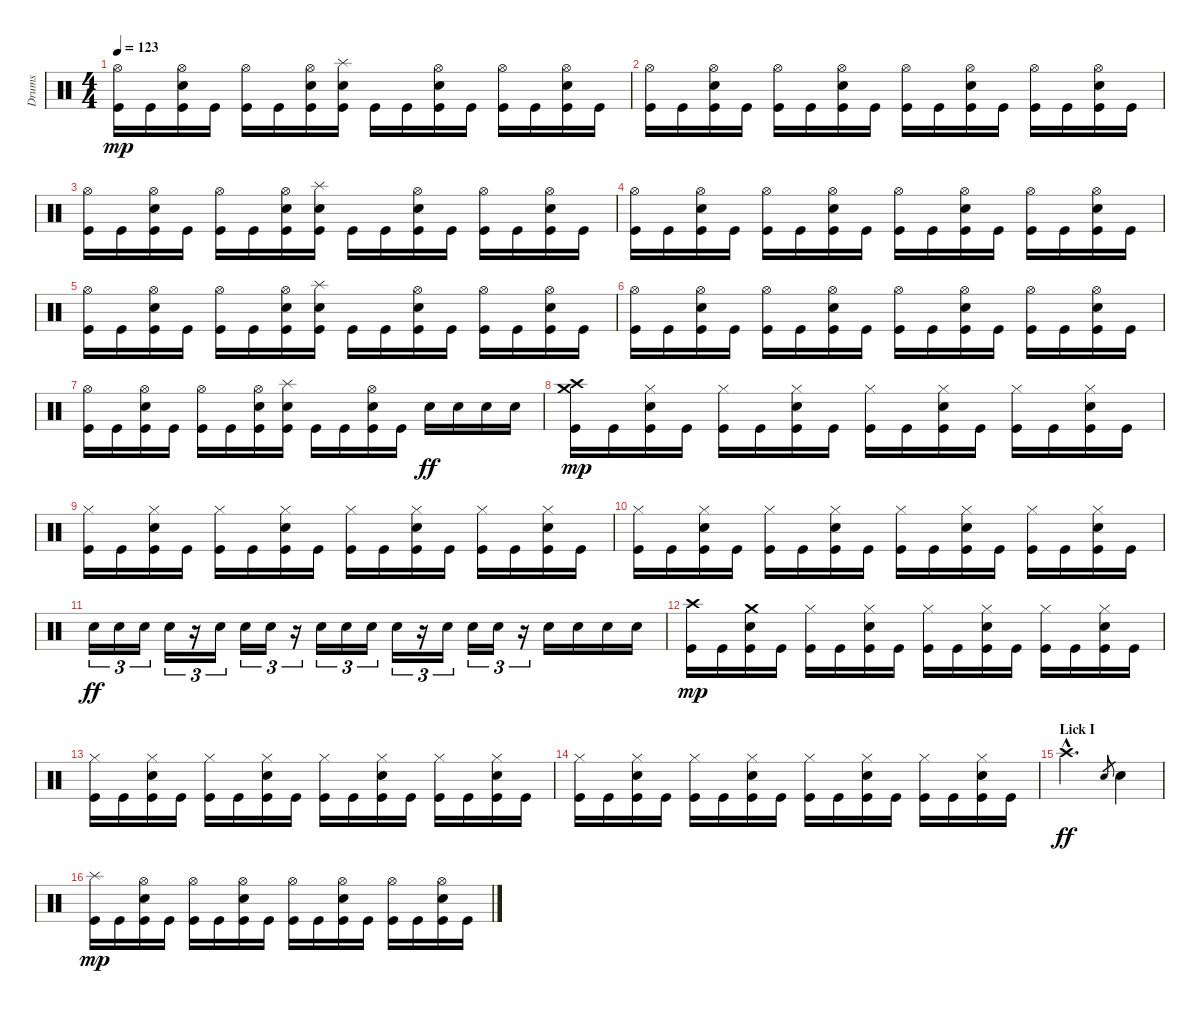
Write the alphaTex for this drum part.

\track ("Drums" "Drums") {instrument percussion}
\staff {score}
\articulation defaults
\ts (4 4)
\tempo 123
\clef neutral
\ks c
("Hi-Hat (open)" "Kick (hit)").16{dy mp} "Kick (hit)".16 ("Hi-Hat (open)" "Electric Snare (hit)" "Kick (hit)").16 "Kick (hit)".16 ("Hi-Hat (open)" "Kick (hit)").16 "Kick (hit)".16 ("Hi-Hat (open)" "Electric Snare (hit)" "Kick (hit)").16 ("Splash (hit)" "Electric Snare (hit)" "Kick (hit)").16 "Kick (hit)".16 "Kick (hit)".16 ("Hi-Hat (open)" "Electric Snare (hit)" "Kick (hit)").16 "Kick (hit)".16 ("Hi-Hat (open)" "Kick (hit)").16 "Kick (hit)".16 ("Hi-Hat (open)" "Electric Snare (hit)" "Kick (hit)").16 "Kick (hit)".16 |
("Hi-Hat (open)" "Kick (hit)").16 "Kick (hit)".16 ("Hi-Hat (open)" "Electric Snare (hit)" "Kick (hit)").16 "Kick (hit)".16 ("Hi-Hat (open)" "Kick (hit)").16 "Kick (hit)".16 ("Hi-Hat (open)" "Electric Snare (hit)" "Kick (hit)").16 "Kick (hit)".16 ("Hi-Hat (open)" "Kick (hit)").16 "Kick (hit)".16 ("Hi-Hat (open)" "Electric Snare (hit)" "Kick (hit)").16 "Kick (hit)".16 ("Hi-Hat (open)" "Kick (hit)").16 "Kick (hit)".16 ("Hi-Hat (open)" "Electric Snare (hit)" "Kick (hit)").16 "Kick (hit)".16 |
("Hi-Hat (open)" "Kick (hit)").16 "Kick (hit)".16 ("Hi-Hat (open)" "Electric Snare (hit)" "Kick (hit)").16 "Kick (hit)".16 ("Hi-Hat (open)" "Kick (hit)").16 "Kick (hit)".16 ("Hi-Hat (open)" "Electric Snare (hit)" "Kick (hit)").16 ("Splash (hit)" "Electric Snare (hit)" "Kick (hit)").16 "Kick (hit)".16 "Kick (hit)".16 ("Hi-Hat (open)" "Electric Snare (hit)" "Kick (hit)").16 "Kick (hit)".16 ("Hi-Hat (open)" "Kick (hit)").16 "Kick (hit)".16 ("Hi-Hat (open)" "Electric Snare (hit)" "Kick (hit)").16 "Kick (hit)".16 |
("Hi-Hat (open)" "Kick (hit)").16 "Kick (hit)".16 ("Hi-Hat (open)" "Electric Snare (hit)" "Kick (hit)").16 "Kick (hit)".16 ("Hi-Hat (open)" "Kick (hit)").16 "Kick (hit)".16 ("Hi-Hat (open)" "Electric Snare (hit)" "Kick (hit)").16 "Kick (hit)".16 ("Hi-Hat (open)" "Kick (hit)").16 "Kick (hit)".16 ("Hi-Hat (open)" "Electric Snare (hit)" "Kick (hit)").16 "Kick (hit)".16 ("Hi-Hat (open)" "Kick (hit)").16 "Kick (hit)".16 ("Hi-Hat (open)" "Electric Snare (hit)" "Kick (hit)").16 "Kick (hit)".16 |
("Hi-Hat (open)" "Kick (hit)").16 "Kick (hit)".16 ("Hi-Hat (open)" "Electric Snare (hit)" "Kick (hit)").16 "Kick (hit)".16 ("Hi-Hat (open)" "Kick (hit)").16 "Kick (hit)".16 ("Hi-Hat (open)" "Electric Snare (hit)" "Kick (hit)").16 ("Splash (hit)" "Electric Snare (hit)" "Kick (hit)").16 "Kick (hit)".16 "Kick (hit)".16 ("Hi-Hat (open)" "Electric Snare (hit)" "Kick (hit)").16 "Kick (hit)".16 ("Hi-Hat (open)" "Kick (hit)").16 "Kick (hit)".16 ("Hi-Hat (open)" "Electric Snare (hit)" "Kick (hit)").16 "Kick (hit)".16 |
("Hi-Hat (open)" "Kick (hit)").16 "Kick (hit)".16 ("Hi-Hat (open)" "Electric Snare (hit)" "Kick (hit)").16 "Kick (hit)".16 ("Hi-Hat (open)" "Kick (hit)").16 "Kick (hit)".16 ("Hi-Hat (open)" "Electric Snare (hit)" "Kick (hit)").16 "Kick (hit)".16 ("Hi-Hat (open)" "Kick (hit)").16 "Kick (hit)".16 ("Hi-Hat (open)" "Electric Snare (hit)" "Kick (hit)").16 "Kick (hit)".16 ("Hi-Hat (open)" "Kick (hit)").16 "Kick (hit)".16 ("Hi-Hat (open)" "Electric Snare (hit)" "Kick (hit)").16 "Kick (hit)".16 |
("Hi-Hat (open)" "Kick (hit)").16 "Kick (hit)".16 ("Hi-Hat (open)" "Electric Snare (hit)" "Kick (hit)").16 "Kick (hit)".16 ("Hi-Hat (open)" "Kick (hit)").16 "Kick (hit)".16 ("Hi-Hat (open)" "Electric Snare (hit)" "Kick (hit)").16 ("Splash (hit)" "Electric Snare (hit)" "Kick (hit)").16 "Kick (hit)".16 "Kick (hit)".16 ("Hi-Hat (open)" "Electric Snare (hit)" "Kick (hit)").16 "Kick (hit)".16 "Electric Snare (hit)".16{dy ff} "Electric Snare (hit)".16 "Electric Snare (hit)".16 "Electric Snare (hit)".16 |
("Crash high (hit)" "Crash medium (hit)" "Kick (hit)").16{dy mp} "Kick (hit)".16 ("Hi-Hat (closed)" "Electric Snare (hit)" "Kick (hit)").16 "Kick (hit)".16 ("Hi-Hat (closed)" "Kick (hit)").16 "Kick (hit)".16 ("Hi-Hat (closed)" "Electric Snare (hit)" "Kick (hit)").16 "Kick (hit)".16 ("Hi-Hat (closed)" "Kick (hit)").16 "Kick (hit)".16 ("Hi-Hat (closed)" "Electric Snare (hit)" "Kick (hit)").16 "Kick (hit)".16 ("Hi-Hat (closed)" "Kick (hit)").16 "Kick (hit)".16 ("Hi-Hat (closed)" "Electric Snare (hit)" "Kick (hit)").16 "Kick (hit)".16 |
("Hi-Hat (closed)" "Kick (hit)").16 "Kick (hit)".16 ("Hi-Hat (closed)" "Electric Snare (hit)" "Kick (hit)").16 "Kick (hit)".16 ("Hi-Hat (closed)" "Kick (hit)").16 "Kick (hit)".16 ("Hi-Hat (closed)" "Electric Snare (hit)" "Kick (hit)").16 "Kick (hit)".16 ("Hi-Hat (closed)" "Kick (hit)").16 "Kick (hit)".16 ("Hi-Hat (closed)" "Electric Snare (hit)" "Kick (hit)").16 "Kick (hit)".16 ("Hi-Hat (closed)" "Kick (hit)").16 "Kick (hit)".16 ("Hi-Hat (closed)" "Electric Snare (hit)" "Kick (hit)").16 "Kick (hit)".16 |
("Hi-Hat (closed)" "Kick (hit)").16 "Kick (hit)".16 ("Hi-Hat (closed)" "Electric Snare (hit)" "Kick (hit)").16 "Kick (hit)".16 ("Hi-Hat (closed)" "Kick (hit)").16 "Kick (hit)".16 ("Hi-Hat (closed)" "Electric Snare (hit)" "Kick (hit)").16 "Kick (hit)".16 ("Hi-Hat (closed)" "Kick (hit)").16 "Kick (hit)".16 ("Hi-Hat (closed)" "Electric Snare (hit)" "Kick (hit)").16 "Kick (hit)".16 ("Hi-Hat (closed)" "Kick (hit)").16 "Kick (hit)".16 ("Hi-Hat (closed)" "Electric Snare (hit)" "Kick (hit)").16 "Kick (hit)".16 |
"Snare (hit) 2".16{tu (3 2) dy ff} "Snare (hit) 2".16{tu (3 2)} "Snare (hit) 2".16{tu (3 2)} "Snare (hit) 2".16{tu (3 2)} r.16{tu (3 2)} "Snare (hit) 2".16{tu (3 2)} "Snare (hit) 2".16{tu (3 2)} "Snare (hit) 2".16{tu (3 2)} r.16{tu (3 2)} "Snare (hit) 2".16{tu (3 2)} "Snare (hit) 2".16{tu (3 2)} "Snare (hit) 2".16{tu (3 2)} "Snare (hit) 2".16{tu (3 2)} r.16{tu (3 2)} "Snare (hit) 2".16{tu (3 2)} "Snare (hit) 2".16{tu (3 2)} "Snare (hit) 2".16{tu (3 2)} r.16{tu (3 2)} "Snare (hit) 2".16 "Snare (hit) 2".16 "Snare (hit) 2".16 "Snare (hit) 2".16 |
("Crash high (hit)" "Kick (hit)").16{dy mp} "Kick (hit)".16 ("Crash medium (hit)" "Electric Snare (hit)" "Kick (hit)").16 "Kick (hit)".16 ("Hi-Hat (closed)" "Kick (hit)").16 "Kick (hit)".16 ("Hi-Hat (closed)" "Electric Snare (hit)" "Kick (hit)").16 "Kick (hit)".16 ("Hi-Hat (closed)" "Kick (hit)").16 "Kick (hit)".16 ("Hi-Hat (closed)" "Electric Snare (hit)" "Kick (hit)").16 "Kick (hit)".16 ("Hi-Hat (closed)" "Kick (hit)").16 "Kick (hit)".16 ("Hi-Hat (closed)" "Electric Snare (hit)" "Kick (hit)").16 "Kick (hit)".16 |
("Hi-Hat (closed)" "Kick (hit)").16 "Kick (hit)".16 ("Hi-Hat (closed)" "Electric Snare (hit)" "Kick (hit)").16 "Kick (hit)".16 ("Hi-Hat (closed)" "Kick (hit)").16 "Kick (hit)".16 ("Hi-Hat (closed)" "Electric Snare (hit)" "Kick (hit)").16 "Kick (hit)".16 ("Hi-Hat (closed)" "Kick (hit)").16 "Kick (hit)".16 ("Hi-Hat (closed)" "Electric Snare (hit)" "Kick (hit)").16 "Kick (hit)".16 ("Hi-Hat (closed)" "Kick (hit)").16 "Kick (hit)".16 ("Hi-Hat (closed)" "Electric Snare (hit)" "Kick (hit)").16 "Kick (hit)".16 |
("Hi-Hat (closed)" "Kick (hit)").16 "Kick (hit)".16 ("Hi-Hat (closed)" "Electric Snare (hit)" "Kick (hit)").16 "Kick (hit)".16 ("Hi-Hat (closed)" "Kick (hit)").16 "Kick (hit)".16 ("Hi-Hat (closed)" "Electric Snare (hit)" "Kick (hit)").16 "Kick (hit)".16 ("Hi-Hat (closed)" "Kick (hit)").16 "Kick (hit)".16 ("Hi-Hat (closed)" "Electric Snare (hit)" "Kick (hit)").16 "Kick (hit)".16 ("Hi-Hat (closed)" "Kick (hit)").16 "Kick (hit)".16 ("Hi-Hat (closed)" "Electric Snare (hit)" "Kick (hit)").16 "Kick (hit)".16 |
\section ("" "Lick I")
"Crash high (hit)"{hac}.2{d dy ff} "Snare (hit) 2".8{gr} "Electric Snare (hit)".4 |
("Splash (hit)" "Kick (hit)").16{dy mp} "Kick (hit)".16 ("Hi-Hat (open)" "Electric Snare (hit)" "Kick (hit)").16 "Kick (hit)".16 ("Hi-Hat (open)" "Kick (hit)").16 "Kick (hit)".16 ("Hi-Hat (open)" "Electric Snare (hit)" "Kick (hit)").16 "Kick (hit)".16 ("Hi-Hat (open)" "Kick (hit)").16 "Kick (hit)".16 ("Hi-Hat (open)" "Electric Snare (hit)" "Kick (hit)").16 "Kick (hit)".16 ("Hi-Hat (open)" "Kick (hit)").16 "Kick (hit)".16 ("Hi-Hat (open)" "Electric Snare (hit)" "Kick (hit)").16 "Kick (hit)".16
